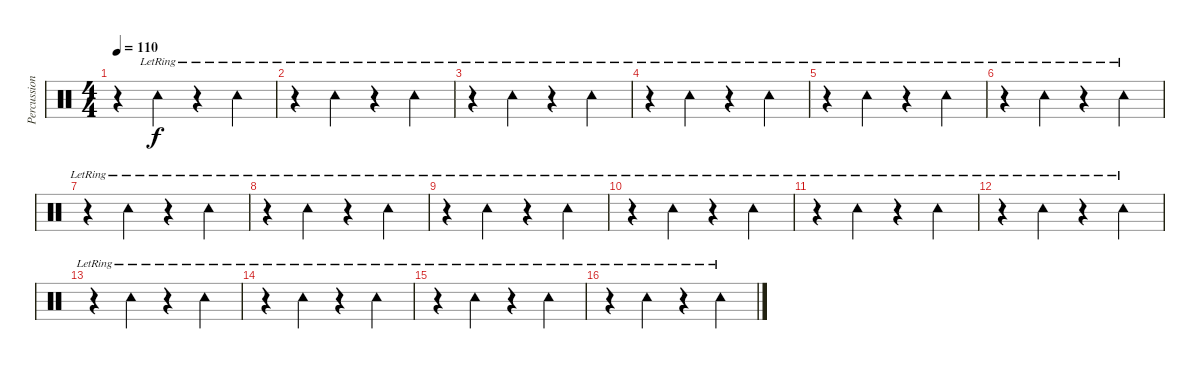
\track ("Percussion" "Percussion") {instrument percussion}
\staff {score}
\articulation defaults
\ts (4 4)
\tempo 110
\tempo 100
\tempo 110
\clef neutral
\ks c
r.4{dy f} "Tambourine (hit)"{lr}.4 r.4 "Tambourine (hit)"{lr}.4 |
r.4 "Tambourine (hit)"{lr}.4 r.4 "Tambourine (hit)"{lr}.4 |
r.4 "Tambourine (hit)"{lr}.4 r.4 "Tambourine (hit)"{lr}.4 |
r.4 "Tambourine (hit)"{lr}.4 r.4 "Tambourine (hit)"{lr}.4 |
r.4 "Tambourine (hit)"{lr}.4 r.4 "Tambourine (hit)"{lr}.4 |
r.4 "Tambourine (hit)"{lr}.4 r.4 "Tambourine (hit)"{lr}.4 |
r.4 "Tambourine (hit)"{lr}.4 r.4 "Tambourine (hit)"{lr}.4 |
r.4 "Tambourine (hit)"{lr}.4 r.4 "Tambourine (hit)"{lr}.4 |
r.4 "Tambourine (hit)"{lr}.4 r.4 "Tambourine (hit)"{lr}.4 |
r.4 "Tambourine (hit)"{lr}.4 r.4 "Tambourine (hit)"{lr}.4 |
r.4 "Tambourine (hit)"{lr}.4 r.4 "Tambourine (hit)"{lr}.4 |
r.4 "Tambourine (hit)"{lr}.4 r.4 "Tambourine (hit)"{lr}.4 |
r.4 "Tambourine (hit)"{lr}.4 r.4 "Tambourine (hit)"{lr}.4 |
r.4 "Tambourine (hit)"{lr}.4 r.4 "Tambourine (hit)"{lr}.4 |
r.4 "Tambourine (hit)"{lr}.4 r.4 "Tambourine (hit)"{lr}.4 |
r.4 "Tambourine (hit)"{lr}.4 r.4 "Tambourine (hit)"{lr}.4
